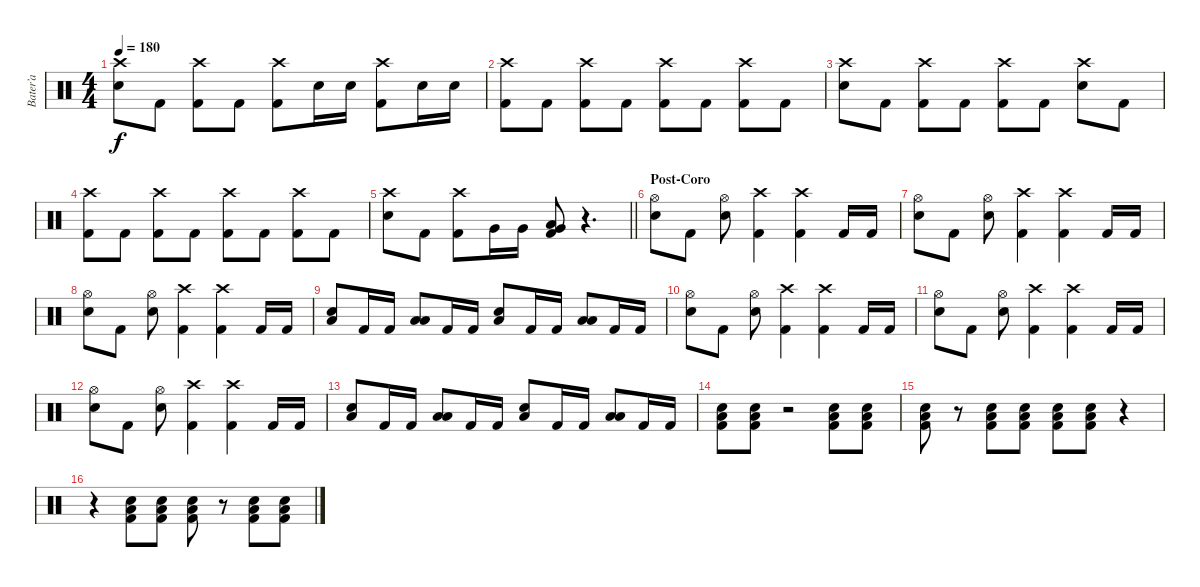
\track ("Bater’a" "Bater’a") {instrument percussion bank 211}
\staff {score}
\articulation defaults
\ts (4 4)
\tempo 180
\clef neutral
\ks c
("Crash high (hit)" "Electric Snare (hit)").8{dy f} "Kick (hit) 2".8 ("Crash high (hit)" "Kick (hit) 2").8 "Kick (hit) 2".8 ("Crash high (hit)" "Kick (hit) 2").8 "Electric Snare (hit)".16 "Electric Snare (hit)".16 ("Crash high (hit)" "Kick (hit) 2").8 "Electric Snare (hit)".16 "Electric Snare (hit)".16 |
("Crash high (hit)" "Kick (hit) 2").8 "Kick (hit) 2".8 ("Crash high (hit)" "Kick (hit) 2").8 "Kick (hit) 2".8 ("Crash high (hit)" "Kick (hit) 2").8 "Kick (hit) 2".8 ("Crash high (hit)" "Kick (hit) 2").8 "Kick (hit) 2".8 |
("Crash high (hit)" "Electric Snare (hit)").8 "Kick (hit) 2".8 ("Crash high (hit)" "Kick (hit) 2").8 "Kick (hit) 2".8 ("Crash high (hit)" "Kick (hit) 2").8 "Kick (hit) 2".8 ("Crash high (hit)" "Electric Snare (hit)").8 "Kick (hit) 2".8 |
("Crash high (hit)" "Kick (hit) 2").8 "Kick (hit) 2".8 ("Crash high (hit)" "Kick (hit) 2").8 "Kick (hit) 2".8 ("Crash high (hit)" "Kick (hit) 2").8 "Kick (hit) 2".8 ("Crash high (hit)" "Kick (hit) 2").8 "Kick (hit) 2".8 |
\barLineRight lightlight
("Crash high (hit)" "Electric Snare (hit)").8 "Kick (hit) 2".8 ("Crash high (hit)" "Kick (hit) 2").8 "Very Low Tom (hit)".16 "Very Low Tom (hit)".16 ("Very Low Tom (hit)" "Low Floor Tom (hit)" "Kick (hit) 2").8 r.4{d} |
\section ("" "Post-Coro")
("Hi-Hat (open)" "Electric Snare (hit)").8 "Kick (hit) 2".8 ("Hi-Hat (open)" "Electric Snare (hit)").8 ("Crash high (hit)" "Kick (hit) 2").4 ("Crash high (hit)" "Kick (hit) 2").4 "Kick (hit) 2".16 "Kick (hit) 2".16 |
("Hi-Hat (open)" "Electric Snare (hit)").8 "Kick (hit) 2".8 ("Hi-Hat (open)" "Electric Snare (hit)").8 ("Crash high (hit)" "Kick (hit) 2").4 ("Crash high (hit)" "Kick (hit) 2").4 "Kick (hit) 2".16 "Kick (hit) 2".16 |
("Hi-Hat (open)" "Electric Snare (hit)").8 "Kick (hit) 2".8 ("Hi-Hat (open)" "Electric Snare (hit)").8 ("Crash high (hit)" "Kick (hit) 2").4 ("Crash high (hit)" "Kick (hit) 2").4 "Kick (hit) 2".16 "Kick (hit) 2".16 |
("Low Floor Tom (hit)" "Electric Snare (hit)").8 "Kick (hit) 2".16 "Kick (hit) 2".16 ("Low Tom (hit)" "Low Floor Tom (hit)").8 "Kick (hit) 2".16 "Kick (hit) 2".16 ("Electric Snare (hit)" "Low Floor Tom (hit)").8 "Kick (hit) 2".16 "Kick (hit) 2".16 ("Low Tom (hit)" "Low Floor Tom (hit)").8 "Kick (hit) 2".16 "Kick (hit) 2".16 |
("Hi-Hat (open)" "Electric Snare (hit)").8 "Kick (hit) 2".8 ("Hi-Hat (open)" "Electric Snare (hit)").8 ("Crash high (hit)" "Kick (hit) 2").4 ("Crash high (hit)" "Kick (hit) 2").4 "Kick (hit) 2".16 "Kick (hit) 2".16 |
("Hi-Hat (open)" "Electric Snare (hit)").8 "Kick (hit) 2".8 ("Hi-Hat (open)" "Electric Snare (hit)").8 ("Crash high (hit)" "Kick (hit) 2").4 ("Crash high (hit)" "Kick (hit) 2").4 "Kick (hit) 2".16 "Kick (hit) 2".16 |
("Hi-Hat (open)" "Electric Snare (hit)").8 "Kick (hit) 2".8 ("Hi-Hat (open)" "Electric Snare (hit)").8 ("Crash high (hit)" "Kick (hit) 2").4 ("Crash high (hit)" "Kick (hit) 2").4 "Kick (hit) 2".16 "Kick (hit) 2".16 |
("Low Floor Tom (hit)" "Electric Snare (hit)").8 "Kick (hit) 2".16 "Kick (hit) 2".16 ("Low Tom (hit)" "Low Floor Tom (hit)").8 "Kick (hit) 2".16 "Kick (hit) 2".16 ("Electric Snare (hit)" "Low Floor Tom (hit)").8 "Kick (hit) 2".16 "Kick (hit) 2".16 ("Low Tom (hit)" "Low Floor Tom (hit)").8 "Kick (hit) 2".16 "Kick (hit) 2".16 |
("Electric Snare (hit)" "Low Floor Tom (hit)" "Kick (hit) 2").8 ("Electric Snare (hit)" "Low Floor Tom (hit)" "Kick (hit) 2").8 r.2 ("Electric Snare (hit)" "Low Floor Tom (hit)" "Kick (hit) 2").8 ("Electric Snare (hit)" "Low Floor Tom (hit)" "Kick (hit) 2").8 |
("Electric Snare (hit)" "Low Floor Tom (hit)" "Kick (hit) 2").8 r.8 ("Electric Snare (hit)" "Low Floor Tom (hit)" "Kick (hit) 2").8 ("Electric Snare (hit)" "Low Floor Tom (hit)" "Kick (hit) 2").8 ("Electric Snare (hit)" "Low Floor Tom (hit)" "Kick (hit) 2").8 ("Electric Snare (hit)" "Low Floor Tom (hit)" "Kick (hit) 2").8 r.4 |
r.4 ("Electric Snare (hit)" "Low Floor Tom (hit)" "Kick (hit) 2").8 ("Electric Snare (hit)" "Low Floor Tom (hit)" "Kick (hit) 2").8 ("Electric Snare (hit)" "Low Floor Tom (hit)" "Kick (hit) 2").8 r.8 ("Electric Snare (hit)" "Low Floor Tom (hit)" "Kick (hit) 2").8 ("Electric Snare (hit)" "Low Floor Tom (hit)" "Kick (hit) 2").8
